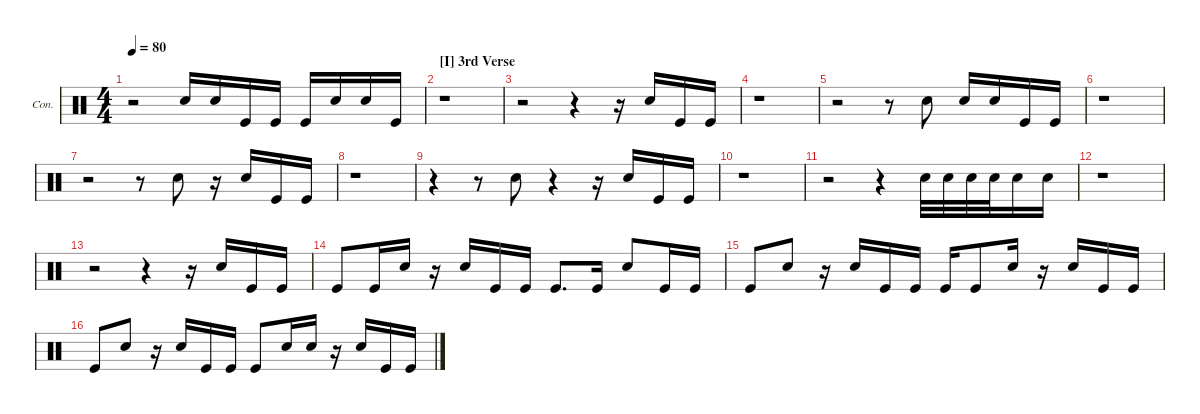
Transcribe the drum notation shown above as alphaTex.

\defaultSystemsLayout 4
\hideDynamics
\bracketExtendMode groupsimilarinstruments
\firstSystemTrackNameOrientation horizontal
\otherSystemsTrackNameOrientation horizontal
\track ("Congas" "Con.") {multiBarRest instrument percussion}
\staff {score}
\articulation defaults
\ts (4 4)
\tempo 80
\clef neutral
\ks c
r.2{dy mf} "Snare (hit) 2".16 "Snare (hit) 2".16 "Kick (hit)".16 "Kick (hit)".16 "Kick (hit)".16 "Snare (hit) 2".16 "Snare (hit) 2".16 "Kick (hit)".16 |
\section ("I" "3rd Verse")
r.1 |
r.2 r.4 r.16 "Snare (hit) 2".16 "Kick (hit)".16 "Kick (hit)".16 |
r.1 |
r.2 r.8 "Snare (hit) 2".8 "Snare (hit) 2".16 "Snare (hit) 2".16 "Kick (hit)".16 "Kick (hit)".16 |
r.1 |
r.2 r.8 "Snare (hit) 2".8 r.16 "Snare (hit) 2".16 "Kick (hit)".16 "Kick (hit)".16 |
r.1 |
r.4 r.8 "Snare (hit) 2".8 r.4 r.16 "Snare (hit) 2".16 "Kick (hit)".16 "Kick (hit)".16 |
r.1 |
r.2 r.4 "Snare (hit) 2".32 "Snare (hit) 2".32 "Snare (hit) 2".32 "Snare (hit) 2".32 "Snare (hit) 2".16 "Snare (hit) 2".16 |
r.1 |
r.2 r.4 r.16 "Snare (hit) 2".16 "Kick (hit)".16 "Kick (hit)".16 |
"Kick (hit)".8 "Kick (hit)".16 "Snare (hit) 2".16 r.16 "Snare (hit) 2".16 "Kick (hit)".16 "Kick (hit)".16 "Kick (hit)".8{d} "Kick (hit)".16 "Snare (hit) 2".8 "Kick (hit)".16 "Kick (hit)".16 |
"Kick (hit)".8 "Snare (hit) 2".8 r.16 "Snare (hit) 2".16 "Kick (hit)".16 "Kick (hit)".16 "Kick (hit)".16 "Kick (hit)".8 "Snare (hit) 2".16 r.16 "Snare (hit) 2".16 "Kick (hit)".16 "Kick (hit)".16 |
"Kick (hit)".8 "Snare (hit) 2".8 r.16 "Snare (hit) 2".16 "Kick (hit)".16 "Kick (hit)".16 "Kick (hit)".8 "Snare (hit) 2".16 "Snare (hit) 2".16 r.16 "Snare (hit) 2".16 "Kick (hit)".16 "Kick (hit)".16
